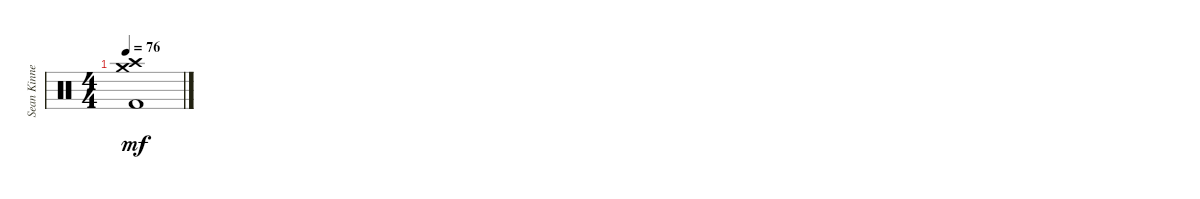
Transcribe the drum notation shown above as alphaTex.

\track ("Sean Kinney" "Sean Kinne") {instrument percussion}
\staff {score}
\articulation defaults
\ts (4 4)
\tempo 76
\clef neutral
\ks c
("Crash medium (hit)" "Crash high (hit)" "Kick (hit) 2").1{dy mf}
